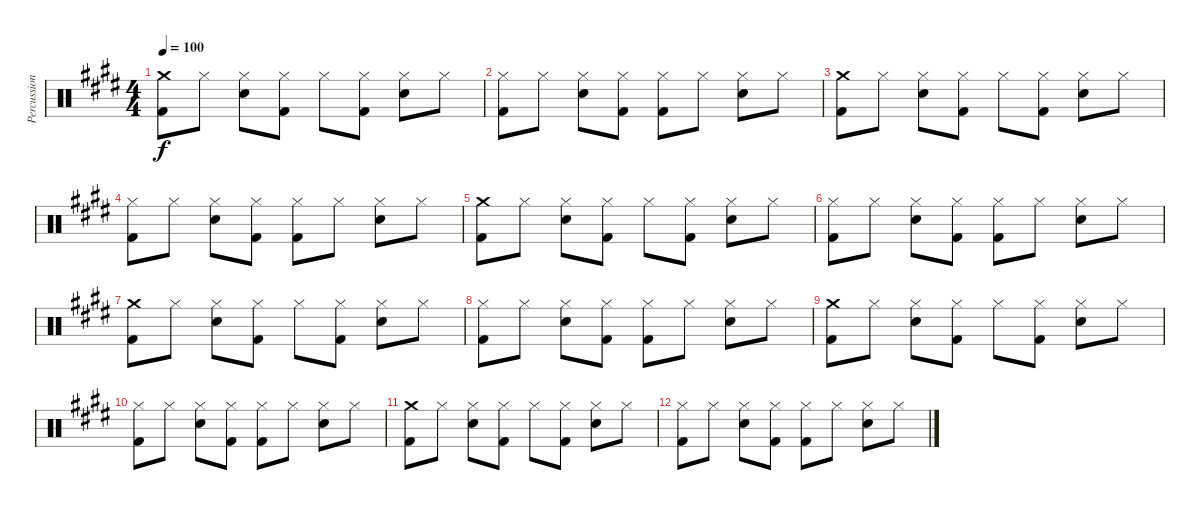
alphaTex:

\track ("Percussion" "Percussion") {instrument percussion}
\staff {score}
\articulation defaults
\ts (4 4)
\tempo 100
\clef neutral
\ks c#minor
("Crash medium (hit)" "Kick (hit) 2").8{dy f} "Hi-Hat (closed)".8 ("Hi-Hat (closed)" "Snare (hit) 2").8 ("Hi-Hat (closed)" "Kick (hit) 2").8 "Hi-Hat (closed)".8 ("Hi-Hat (closed)" "Kick (hit) 2").8 ("Hi-Hat (closed)" "Snare (hit) 2").8 "Hi-Hat (closed)".8 |
("Hi-Hat (closed)" "Kick (hit) 2").8 "Hi-Hat (closed)".8 ("Hi-Hat (closed)" "Snare (hit) 2").8 ("Hi-Hat (closed)" "Kick (hit) 2").8 ("Hi-Hat (closed)" "Kick (hit) 2").8 "Hi-Hat (closed)".8 ("Hi-Hat (closed)" "Snare (hit) 2").8 "Hi-Hat (closed)".8 |
("Crash medium (hit)" "Kick (hit) 2").8 "Hi-Hat (closed)".8 ("Hi-Hat (closed)" "Snare (hit) 2").8 ("Hi-Hat (closed)" "Kick (hit) 2").8 "Hi-Hat (closed)".8 ("Hi-Hat (closed)" "Kick (hit) 2").8 ("Hi-Hat (closed)" "Snare (hit) 2").8 "Hi-Hat (closed)".8 |
("Hi-Hat (closed)" "Kick (hit) 2").8 "Hi-Hat (closed)".8 ("Hi-Hat (closed)" "Snare (hit) 2").8 ("Hi-Hat (closed)" "Kick (hit) 2").8 ("Hi-Hat (closed)" "Kick (hit) 2").8 "Hi-Hat (closed)".8 ("Hi-Hat (closed)" "Snare (hit) 2").8 "Hi-Hat (closed)".8 |
("Crash medium (hit)" "Kick (hit) 2").8 "Hi-Hat (closed)".8 ("Hi-Hat (closed)" "Snare (hit) 2").8 ("Hi-Hat (closed)" "Kick (hit) 2").8 "Hi-Hat (closed)".8 ("Hi-Hat (closed)" "Kick (hit) 2").8 ("Hi-Hat (closed)" "Snare (hit) 2").8 "Hi-Hat (closed)".8 |
("Hi-Hat (closed)" "Kick (hit) 2").8 "Hi-Hat (closed)".8 ("Hi-Hat (closed)" "Snare (hit) 2").8 ("Hi-Hat (closed)" "Kick (hit) 2").8 ("Hi-Hat (closed)" "Kick (hit) 2").8 "Hi-Hat (closed)".8 ("Hi-Hat (closed)" "Snare (hit) 2").8 "Hi-Hat (closed)".8 |
("Crash medium (hit)" "Kick (hit) 2").8 "Hi-Hat (closed)".8 ("Hi-Hat (closed)" "Snare (hit) 2").8 ("Hi-Hat (closed)" "Kick (hit) 2").8 "Hi-Hat (closed)".8 ("Hi-Hat (closed)" "Kick (hit) 2").8 ("Hi-Hat (closed)" "Snare (hit) 2").8 "Hi-Hat (closed)".8 |
("Hi-Hat (closed)" "Kick (hit) 2").8 "Hi-Hat (closed)".8 ("Hi-Hat (closed)" "Snare (hit) 2").8 ("Hi-Hat (closed)" "Kick (hit) 2").8 ("Hi-Hat (closed)" "Kick (hit) 2").8 "Hi-Hat (closed)".8 ("Hi-Hat (closed)" "Snare (hit) 2").8 "Hi-Hat (closed)".8 |
("Crash medium (hit)" "Kick (hit) 2").8 "Hi-Hat (closed)".8 ("Hi-Hat (closed)" "Snare (hit) 2").8 ("Hi-Hat (closed)" "Kick (hit) 2").8 "Hi-Hat (closed)".8 ("Hi-Hat (closed)" "Kick (hit) 2").8 ("Hi-Hat (closed)" "Snare (hit) 2").8 "Hi-Hat (closed)".8 |
("Hi-Hat (closed)" "Kick (hit) 2").8 "Hi-Hat (closed)".8 ("Hi-Hat (closed)" "Snare (hit) 2").8 ("Hi-Hat (closed)" "Kick (hit) 2").8 ("Hi-Hat (closed)" "Kick (hit) 2").8 "Hi-Hat (closed)".8 ("Hi-Hat (closed)" "Snare (hit) 2").8 "Hi-Hat (closed)".8 |
("Crash medium (hit)" "Kick (hit) 2").8 "Hi-Hat (closed)".8 ("Hi-Hat (closed)" "Snare (hit) 2").8 ("Hi-Hat (closed)" "Kick (hit) 2").8 "Hi-Hat (closed)".8 ("Hi-Hat (closed)" "Kick (hit) 2").8 ("Hi-Hat (closed)" "Snare (hit) 2").8 "Hi-Hat (closed)".8 |
("Hi-Hat (closed)" "Kick (hit) 2").8 "Hi-Hat (closed)".8 ("Hi-Hat (closed)" "Snare (hit) 2").8 ("Hi-Hat (closed)" "Kick (hit) 2").8 ("Hi-Hat (closed)" "Kick (hit) 2").8 "Hi-Hat (closed)".8 ("Hi-Hat (closed)" "Snare (hit) 2").8 "Hi-Hat (closed)".8
